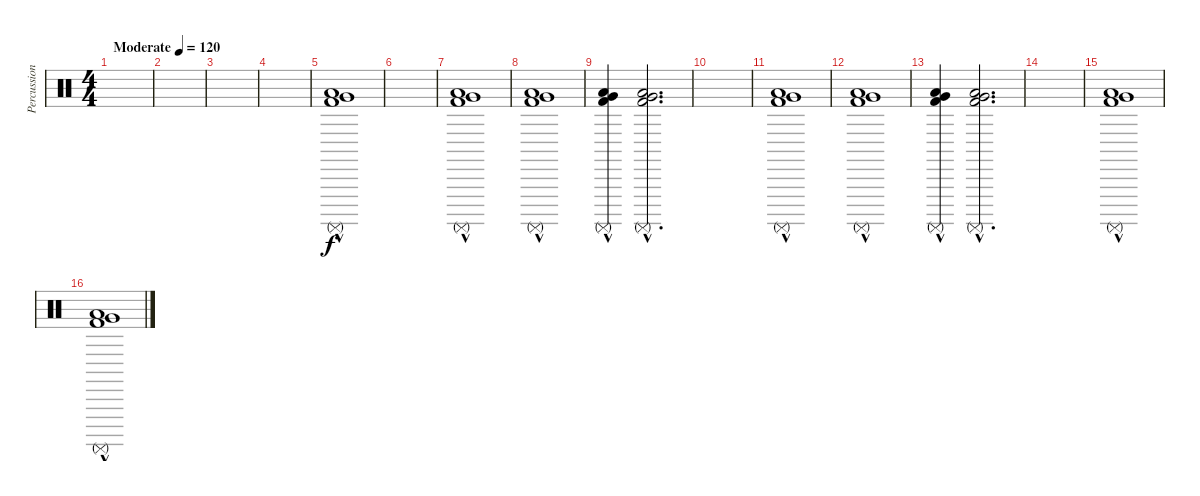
\track ("Percussions Principales" "Percussion") {instrument percussion}
\staff {score}
\articulation defaults
\ts (4 4)
\tempo (120 "Moderate")
\clef neutral
\ks c
|
|
|
|
("Surdo (mute)"{hac} "Low Floor Tom (hit)"{hac} "Kick (hit) 2"{hac} "Very Low Tom (hit)").1 |
|
("Surdo (mute)"{hac} "Low Floor Tom (hit)"{hac} "Kick (hit) 2"{hac} "Very Low Tom (hit)").1 |
("Surdo (mute)"{hac} "Low Floor Tom (hit)"{hac} "Kick (hit) 2"{hac} "Very Low Tom (hit)").1 |
("Surdo (mute)"{hac} "Low Floor Tom (hit)"{hac} "Kick (hit) 2"{hac} "Very Low Tom (hit)").4 ("Surdo (mute)"{hac} "Low Floor Tom (hit)"{hac} "Kick (hit) 2"{hac} "Very Low Tom (hit)").2{d} |
|
("Surdo (mute)"{hac} "Low Floor Tom (hit)"{hac} "Kick (hit) 2"{hac} "Very Low Tom (hit)").1 |
("Surdo (mute)"{hac} "Low Floor Tom (hit)"{hac} "Kick (hit) 2"{hac} "Very Low Tom (hit)").1 |
("Surdo (mute)"{hac} "Low Floor Tom (hit)"{hac} "Kick (hit) 2"{hac} "Very Low Tom (hit)").4 ("Surdo (mute)"{hac} "Low Floor Tom (hit)"{hac} "Kick (hit) 2"{hac} "Very Low Tom (hit)").2{d} |
|
("Surdo (mute)"{hac} "Low Floor Tom (hit)"{hac} "Kick (hit) 2"{hac} "Very Low Tom (hit)").1 |
("Surdo (mute)"{hac} "Low Floor Tom (hit)"{hac} "Kick (hit) 2"{hac} "Very Low Tom (hit)").1
